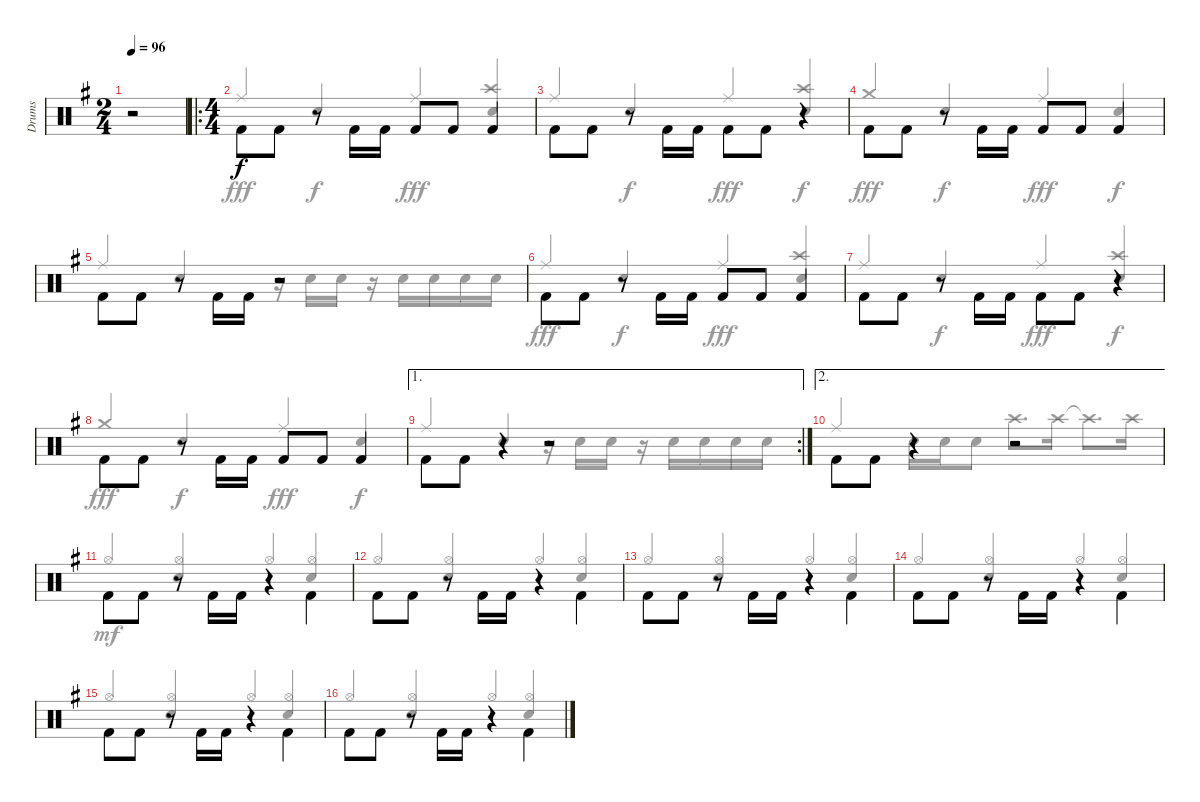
\track ("Drums" "Drums") {instrument percussion}
\staff {score}
\articulation defaults
\voice
\ts (2 4)
\tempo 96
\clef neutral
\ks g
r.2{dy f} |
\ro
\ts (4 4)
"Kick (hit) 2".8{beam Down} "Kick (hit) 2".8{beam Down} r.8 "Kick (hit) 2".16{beam Down} "Kick (hit) 2".16{beam Down} "Kick (hit) 2".8 "Kick (hit) 2".8 "Kick (hit) 2".4 |
"Kick (hit) 2".8{beam Down} "Kick (hit) 2".8{beam Down} r.8 "Kick (hit) 2".16{beam Down} "Kick (hit) 2".16{beam Down} "Kick (hit) 2".8{beam Down} "Kick (hit) 2".8{beam Down} r.4 |
"Kick (hit) 2".8{beam Down} "Kick (hit) 2".8{beam Down} r.8 "Kick (hit) 2".16{beam Down} "Kick (hit) 2".16{beam Down} "Kick (hit) 2".8 "Kick (hit) 2".8 "Kick (hit) 2".4 |
"Kick (hit) 2".8{beam Down} "Kick (hit) 2".8{beam Down} r.8 "Kick (hit) 2".16{beam Down} "Kick (hit) 2".16{beam Down} r.2 |
"Kick (hit) 2".8{beam Down} "Kick (hit) 2".8{beam Down} r.8 "Kick (hit) 2".16{beam Down} "Kick (hit) 2".16{beam Down} "Kick (hit) 2".8 "Kick (hit) 2".8 "Kick (hit) 2".4 |
"Kick (hit) 2".8{beam Down} "Kick (hit) 2".8{beam Down} r.8 "Kick (hit) 2".16{beam Down} "Kick (hit) 2".16{beam Down} "Kick (hit) 2".8{beam Down} "Kick (hit) 2".8{beam Down} r.4 |
"Kick (hit) 2".8{beam Down} "Kick (hit) 2".8{beam Down} r.8 "Kick (hit) 2".16{beam Down} "Kick (hit) 2".16{beam Down} "Kick (hit) 2".8 "Kick (hit) 2".8 "Kick (hit) 2".4 |
\ae 1
\rc 2 "Kick (hit) 2".8{beam Down} "Kick (hit) 2".8{beam Down}
r.4 r.2 |
\ae 2 "Kick (hit) 2".8{beam Down} "Kick (hit) 2".8{beam Down}
r.4 r.2 |
"Kick (hit) 2".8{beam Down} "Kick (hit) 2".8{beam Down} r.8 "Kick (hit) 2".16{beam Down} "Kick (hit) 2".16{beam Down} r.4 "Kick (hit) 2".4{beam Down} |
"Kick (hit) 2".8{beam Down} "Kick (hit) 2".8{beam Down} r.8 "Kick (hit) 2".16{beam Down} "Kick (hit) 2".16{beam Down} r.4 "Kick (hit) 2".4{beam Down} |
"Kick (hit) 2".8{beam Down} "Kick (hit) 2".8{beam Down} r.8 "Kick (hit) 2".16{beam Down} "Kick (hit) 2".16{beam Down} r.4 "Kick (hit) 2".4{beam Down} |
"Kick (hit) 2".8{beam Down} "Kick (hit) 2".8{beam Down} r.8 "Kick (hit) 2".16{beam Down} "Kick (hit) 2".16{beam Down} r.4 "Kick (hit) 2".4{beam Down} |
"Kick (hit) 2".8{beam Down} "Kick (hit) 2".8{beam Down} r.8 "Kick (hit) 2".16{beam Down} "Kick (hit) 2".16{beam Down} r.4 "Kick (hit) 2".4{beam Down} |
"Kick (hit) 2".8{beam Down} "Kick (hit) 2".8{beam Down} r.8 "Kick (hit) 2".16{beam Down} "Kick (hit) 2".16{beam Down} r.4 "Kick (hit) 2".4{beam Down}
\voice
\clef neutral
\ottava regular
\simile none
\ks g
|
"Ride (middle)".4{dy fff beam Up} "Snare (hit) 2".4{dy f beam Up} "Ride (middle)".4{dy fff beam Up} ("Crash high (hit)" "Snare (hit) 2").4{beam Up} |
"Ride (middle)".4{beam Up} "Snare (hit) 2".4{dy f beam Up} "Ride (middle)".4{dy fff beam Up} ("Crash high (hit)" "Snare (hit) 2").4{dy f beam Up} |
"Crash medium (hit)".4{dy fff beam Up} "Snare (hit) 2".4{dy f beam Up} "Ride (middle)".4{dy fff beam Up} "Snare (hit) 2".4{dy f beam Up} |
"Ride (middle)".4{beam Up} "Snare (hit) 2".4{beam Up} r.16 "Snare (hit) 2".16{beam Down} "Snare (hit) 2".16{beam Down} r.16 "Snare (hit) 2".16{beam Down} "Snare (hit) 2".16{beam Down} "Snare (hit) 2".16{beam Down} "Snare (hit) 2".16{beam Down} |
"Ride (middle)".4{dy fff beam Up} "Snare (hit) 2".4{dy f beam Up} "Ride (middle)".4{dy fff beam Up} ("Crash high (hit)" "Snare (hit) 2").4{beam Up} |
"Ride (middle)".4{beam Up} "Snare (hit) 2".4{dy f beam Up} "Ride (middle)".4{dy fff beam Up} ("Crash high (hit)" "Snare (hit) 2").4{dy f beam Up} |
"Crash medium (hit)".4{dy fff beam Up} "Snare (hit) 2".4{dy f beam Up} "Ride (middle)".4{dy fff beam Up} "Snare (hit) 2".4{dy f beam Up} |
"Ride (middle)".4{beam Up} "Snare (hit) 2".4{beam Up} r.16 "Snare (hit) 2".16{beam Down} "Snare (hit) 2".16{beam Down} r.16 "Snare (hit) 2".16{beam Down} "Snare (hit) 2".16{beam Down} "Snare (hit) 2".16{beam Down} "Snare (hit) 2".16{beam Down} |
"Ride (middle)".4{beam Up} "Snare (hit) 2".16 "Snare (hit) 2".16 "Snare (hit) 2".8 "Crash high (hit)".8{d} "Crash high (hit)".16 "Crash high (hit)"{t}.8{d} "Crash high (hit)".16 |
"Hi-Hat (open)".4{dy mf beam Up} ("Hi-Hat (open)" "Snare (hit) 2").4{beam Up} "Hi-Hat (open)".4{beam Up} ("Hi-Hat (open)" "Snare (hit) 2").4{beam Up} |
"Hi-Hat (open)".4{beam Up} ("Hi-Hat (open)" "Snare (hit) 2").4{beam Up} "Hi-Hat (open)".4{beam Up} ("Hi-Hat (open)" "Snare (hit) 2").4{beam Up} |
"Hi-Hat (open)".4{beam Up} ("Hi-Hat (open)" "Snare (hit) 2").4{beam Up} "Hi-Hat (open)".4{beam Up} ("Hi-Hat (open)" "Snare (hit) 2").4{beam Up} |
"Hi-Hat (open)".4{beam Up} ("Hi-Hat (open)" "Snare (hit) 2").4{beam Up} "Hi-Hat (open)".4{beam Up} ("Hi-Hat (open)" "Snare (hit) 2").4{beam Up} |
"Hi-Hat (open)".4{beam Up} ("Hi-Hat (open)" "Snare (hit) 2").4{beam Up} "Hi-Hat (open)".4{beam Up} ("Hi-Hat (open)" "Snare (hit) 2").4{beam Up} |
"Hi-Hat (open)".4{beam Up} ("Hi-Hat (open)" "Snare (hit) 2").4{beam Up} "Hi-Hat (open)".4{beam Up} ("Hi-Hat (open)" "Snare (hit) 2").4{beam Up}
